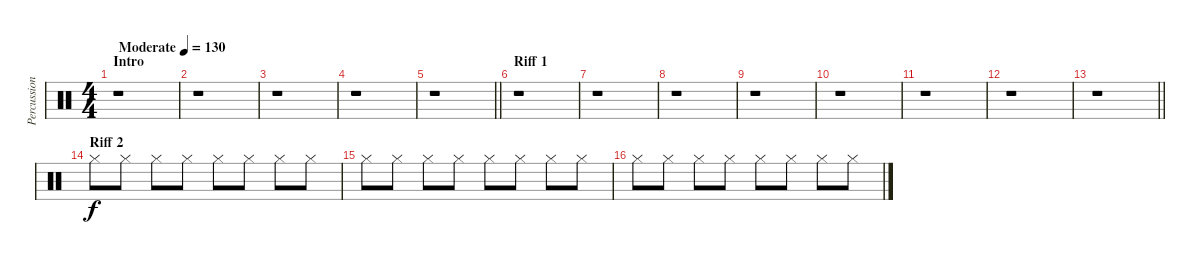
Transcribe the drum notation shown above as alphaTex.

\track ("Percussion 2" "Percussion") {instrument percussion}
\staff {score}
\articulation defaults
\ts (4 4)
\section ("" "Intro")
\tempo (130 "Moderate")
\clef neutral
\ks c
r.1{dy f} |
r.1 |
r.1 |
r.1 |
\barLineRight lightlight
r.1 |
\section ("" "Riff 1")
r.1 |
r.1 |
r.1 |
r.1 |
r.1 |
r.1 |
r.1 |
\barLineRight lightlight
r.1 |
\section ("" "Riff 2")
"Hi-Hat (closed)".8 "Hi-Hat (closed)".8 "Hi-Hat (closed)".8 "Hi-Hat (closed)".8 "Hi-Hat (closed)".8 "Hi-Hat (closed)".8 "Hi-Hat (closed)".8 "Hi-Hat (closed)".8 |
"Hi-Hat (closed)".8 "Hi-Hat (closed)".8 "Hi-Hat (closed)".8 "Hi-Hat (closed)".8 "Hi-Hat (closed)".8 "Hi-Hat (closed)".8 "Hi-Hat (closed)".8 "Hi-Hat (closed)".8 |
"Hi-Hat (closed)".8 "Hi-Hat (closed)".8 "Hi-Hat (closed)".8 "Hi-Hat (closed)".8 "Hi-Hat (closed)".8 "Hi-Hat (closed)".8 "Hi-Hat (closed)".8 "Hi-Hat (closed)".8
